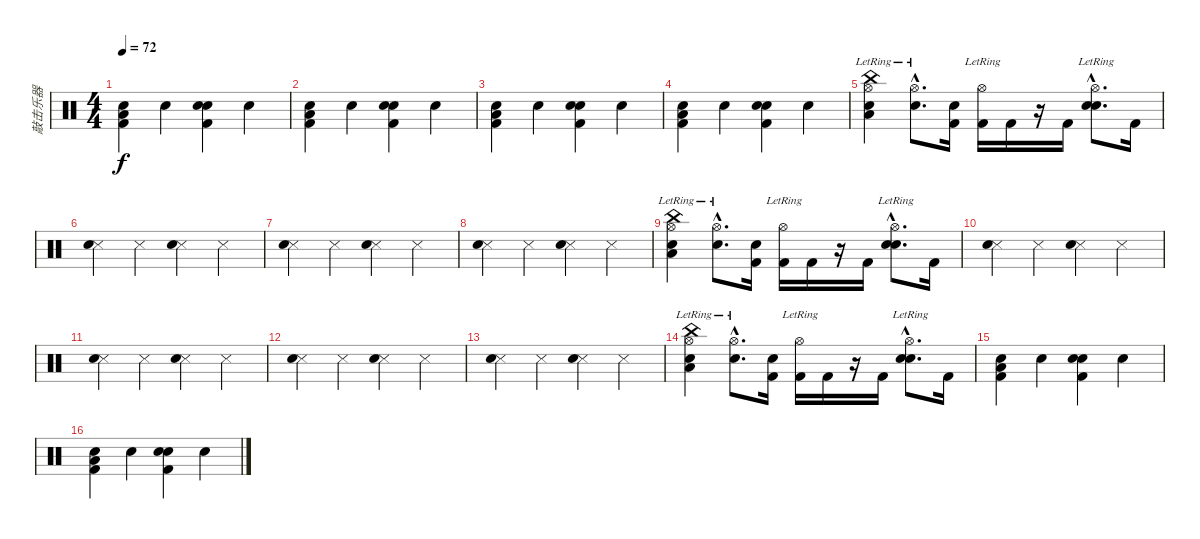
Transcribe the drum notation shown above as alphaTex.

\track ("敲击乐器" "敲击乐器") {instrument percussion}
\staff {score}
\articulation defaults
\ts (4 4)
\tempo 72
\clef neutral
\ks c
("Snare (hit) 2" "Kick (hit) 2" "Low Floor Tom (hit)").4{dy f} "Electric Snare (hit)".4 ("Snare (hit) 2" "Kick (hit) 2" "Hand Clap (hit)").4 "Electric Snare (hit)".4 |
("Snare (hit) 2" "Kick (hit) 2" "Low Floor Tom (hit)").4 "Electric Snare (hit)".4 ("Snare (hit) 2" "Kick (hit) 2" "Hand Clap (hit)").4 "Electric Snare (hit)".4 |
("Snare (hit) 2" "Kick (hit) 2" "Low Floor Tom (hit)").4 "Electric Snare (hit)".4 ("Snare (hit) 2" "Kick (hit) 2" "Hand Clap (hit)").4 "Electric Snare (hit)".4 |
("Snare (hit) 2" "Kick (hit) 2" "Low Floor Tom (hit)").4 "Electric Snare (hit)".4 ("Snare (hit) 2" "Kick (hit) 2" "Hand Clap (hit)").4 "Electric Snare (hit)".4 |
("China (hit)" "Snare (hit) 2" "Low Floor Tom (hit)" "Hi-Hat (open)"{lr}).4 ("Electric Snare (hit)"{hac} "Hi-Hat (open)"{hac lr}).8{d} ("Kick (hit) 2" "Snare (hit) 2").16 ("Kick (hit) 2" "Hi-Hat (open)"{lr}).16 "Kick (hit) 2".16 r.16 "Kick (hit) 2".16 ("Electric Snare (hit)"{hac} "Hand Clap (hit)"{hac} "Hi-Hat (open)"{hac lr}).8{d} "Kick (hit) 2".16 |
("Snare (side stick) 3" "Electric Snare (hit)").4 "Snare (side stick) 3".4 ("Snare (side stick) 3" "Hand Clap (hit)").4 "Snare (side stick) 3".4 |
("Snare (side stick) 3" "Electric Snare (hit)").4 "Snare (side stick) 3".4 ("Snare (side stick) 3" "Hand Clap (hit)").4 "Snare (side stick) 3".4 |
("Snare (side stick) 3" "Electric Snare (hit)").4 "Snare (side stick) 3".4 ("Snare (side stick) 3" "Hand Clap (hit)").4 "Snare (side stick) 3".4 |
("China (hit)" "Snare (hit) 2" "Low Floor Tom (hit)" "Hi-Hat (open)"{lr}).4 ("Electric Snare (hit)"{hac} "Hi-Hat (open)"{hac lr}).8{d} ("Kick (hit) 2" "Snare (hit) 2").16 ("Kick (hit) 2" "Hi-Hat (open)"{lr}).16 "Kick (hit) 2".16 r.16 "Kick (hit) 2".16 ("Electric Snare (hit)"{hac} "Hand Clap (hit)"{hac} "Hi-Hat (open)"{hac lr}).8{d} "Kick (hit) 2".16 |
("Snare (side stick) 3" "Electric Snare (hit)").4 "Snare (side stick) 3".4 ("Snare (side stick) 3" "Hand Clap (hit)").4 "Snare (side stick) 3".4 |
("Snare (side stick) 3" "Electric Snare (hit)").4 "Snare (side stick) 3".4 ("Snare (side stick) 3" "Hand Clap (hit)").4 "Snare (side stick) 3".4 |
("Snare (side stick) 3" "Electric Snare (hit)").4 "Snare (side stick) 3".4 ("Snare (side stick) 3" "Hand Clap (hit)").4 "Snare (side stick) 3".4 |
("Snare (side stick) 3" "Electric Snare (hit)").4 "Snare (side stick) 3".4 ("Snare (side stick) 3" "Hand Clap (hit)").4 "Snare (side stick) 3".4 |
("China (hit)" "Snare (hit) 2" "Low Floor Tom (hit)" "Hi-Hat (open)"{lr}).4 ("Electric Snare (hit)"{hac} "Hi-Hat (open)"{hac lr}).8{d} ("Kick (hit) 2" "Snare (hit) 2").16 ("Kick (hit) 2" "Hi-Hat (open)"{lr}).16 "Kick (hit) 2".16 r.16 "Kick (hit) 2".16 ("Electric Snare (hit)"{hac} "Hand Clap (hit)"{hac} "Hi-Hat (open)"{hac lr}).8{d} "Kick (hit) 2".16 |
("Snare (hit) 2" "Kick (hit) 2" "Low Floor Tom (hit)").4 "Electric Snare (hit)".4 ("Snare (hit) 2" "Kick (hit) 2" "Hand Clap (hit)").4 "Electric Snare (hit)".4 |
("Snare (hit) 2" "Kick (hit) 2" "Low Floor Tom (hit)").4 "Electric Snare (hit)".4 ("Snare (hit) 2" "Kick (hit) 2" "Hand Clap (hit)").4 "Electric Snare (hit)".4
